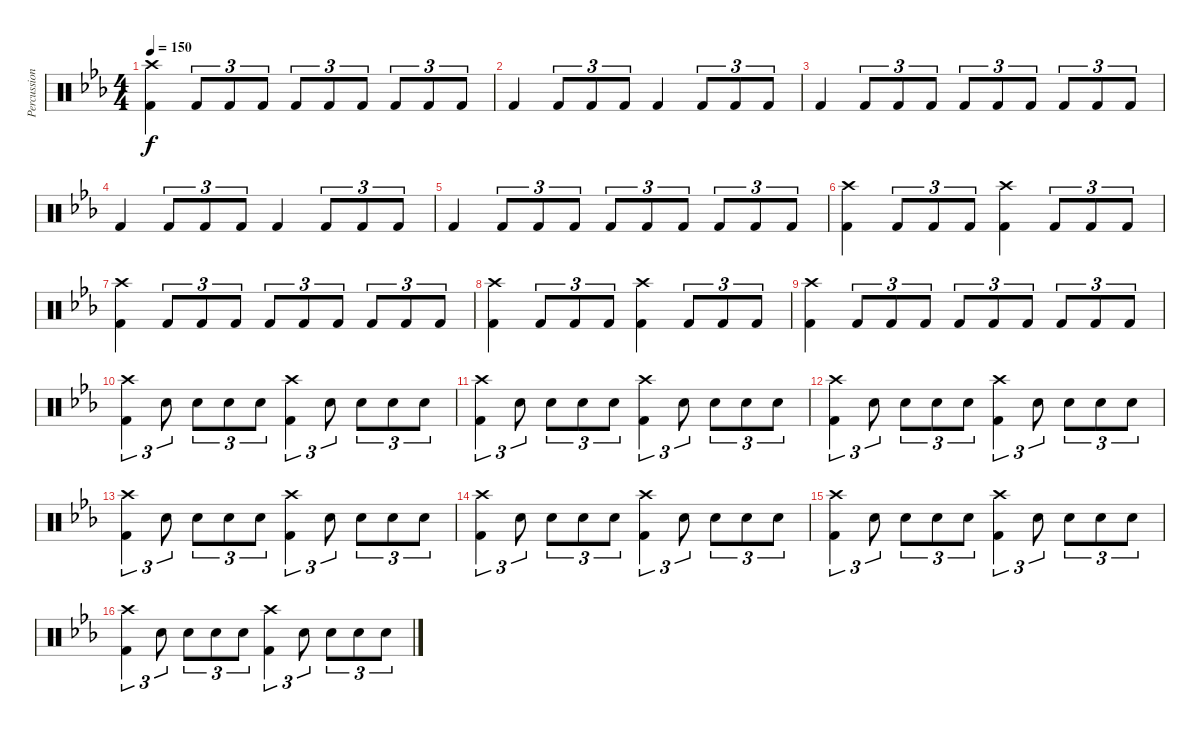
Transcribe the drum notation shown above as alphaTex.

\track ("Percussion" "Percussion") {instrument percussion}
\staff {score}
\articulation defaults
\ts (4 4)
\tempo 150
\clef neutral
\ks cminor
("Crash high (hit)" "Kick (hit) 2").4{dy f} "Kick (hit) 2".8{tu (3 2)} "Kick (hit) 2".8{tu (3 2)} "Kick (hit) 2".8{tu (3 2)} "Kick (hit) 2".8{tu (3 2)} "Kick (hit) 2".8{tu (3 2)} "Kick (hit) 2".8{tu (3 2)} "Kick (hit) 2".8{tu (3 2)} "Kick (hit) 2".8{tu (3 2)} "Kick (hit) 2".8{tu (3 2)} |
"Kick (hit) 2".4 "Kick (hit) 2".8{tu (3 2)} "Kick (hit) 2".8{tu (3 2)} "Kick (hit) 2".8{tu (3 2)} "Kick (hit) 2".4 "Kick (hit) 2".8{tu (3 2)} "Kick (hit) 2".8{tu (3 2)} "Kick (hit) 2".8{tu (3 2)} |
"Kick (hit) 2".4 "Kick (hit) 2".8{tu (3 2)} "Kick (hit) 2".8{tu (3 2)} "Kick (hit) 2".8{tu (3 2)} "Kick (hit) 2".8{tu (3 2)} "Kick (hit) 2".8{tu (3 2)} "Kick (hit) 2".8{tu (3 2)} "Kick (hit) 2".8{tu (3 2)} "Kick (hit) 2".8{tu (3 2)} "Kick (hit) 2".8{tu (3 2)} |
"Kick (hit) 2".4 "Kick (hit) 2".8{tu (3 2)} "Kick (hit) 2".8{tu (3 2)} "Kick (hit) 2".8{tu (3 2)} "Kick (hit) 2".4 "Kick (hit) 2".8{tu (3 2)} "Kick (hit) 2".8{tu (3 2)} "Kick (hit) 2".8{tu (3 2)} |
"Kick (hit) 2".4 "Kick (hit) 2".8{tu (3 2)} "Kick (hit) 2".8{tu (3 2)} "Kick (hit) 2".8{tu (3 2)} "Kick (hit) 2".8{tu (3 2)} "Kick (hit) 2".8{tu (3 2)} "Kick (hit) 2".8{tu (3 2)} "Kick (hit) 2".8{tu (3 2)} "Kick (hit) 2".8{tu (3 2)} "Kick (hit) 2".8{tu (3 2)} |
("Crash high (hit)" "Kick (hit) 2").4 "Kick (hit) 2".8{tu (3 2)} "Kick (hit) 2".8{tu (3 2)} "Kick (hit) 2".8{tu (3 2)} ("Crash high (hit)" "Kick (hit) 2").4 "Kick (hit) 2".8{tu (3 2)} "Kick (hit) 2".8{tu (3 2)} "Kick (hit) 2".8{tu (3 2)} |
("Crash high (hit)" "Kick (hit) 2").4 "Kick (hit) 2".8{tu (3 2)} "Kick (hit) 2".8{tu (3 2)} "Kick (hit) 2".8{tu (3 2)} "Kick (hit) 2".8{tu (3 2)} "Kick (hit) 2".8{tu (3 2)} "Kick (hit) 2".8{tu (3 2)} "Kick (hit) 2".8{tu (3 2)} "Kick (hit) 2".8{tu (3 2)} "Kick (hit) 2".8{tu (3 2)} |
("Crash high (hit)" "Kick (hit) 2").4 "Kick (hit) 2".8{tu (3 2)} "Kick (hit) 2".8{tu (3 2)} "Kick (hit) 2".8{tu (3 2)} ("Crash high (hit)" "Kick (hit) 2").4 "Kick (hit) 2".8{tu (3 2)} "Kick (hit) 2".8{tu (3 2)} "Kick (hit) 2".8{tu (3 2)} |
("Crash high (hit)" "Kick (hit) 2").4 "Kick (hit) 2".8{tu (3 2)} "Kick (hit) 2".8{tu (3 2)} "Kick (hit) 2".8{tu (3 2)} "Kick (hit) 2".8{tu (3 2)} "Kick (hit) 2".8{tu (3 2)} "Kick (hit) 2".8{tu (3 2)} "Kick (hit) 2".8{tu (3 2)} "Kick (hit) 2".8{tu (3 2)} "Kick (hit) 2".8{tu (3 2)} |
("Crash high (hit)" "Kick (hit) 2").4{tu (3 2)} "Snare (hit) 2".8{tu (3 2)} "Snare (hit) 2".8{tu (3 2)} "Snare (hit) 2".8{tu (3 2)} "Snare (hit) 2".8{tu (3 2)} ("Crash high (hit)" "Kick (hit) 2").4{tu (3 2)} "Snare (hit) 2".8{tu (3 2)} "Snare (hit) 2".8{tu (3 2)} "Snare (hit) 2".8{tu (3 2)} "Snare (hit) 2".8{tu (3 2)} |
("Crash high (hit)" "Kick (hit) 2").4{tu (3 2)} "Snare (hit) 2".8{tu (3 2)} "Snare (hit) 2".8{tu (3 2)} "Snare (hit) 2".8{tu (3 2)} "Snare (hit) 2".8{tu (3 2)} ("Crash high (hit)" "Kick (hit) 2").4{tu (3 2)} "Snare (hit) 2".8{tu (3 2)} "Snare (hit) 2".8{tu (3 2)} "Snare (hit) 2".8{tu (3 2)} "Snare (hit) 2".8{tu (3 2)} |
("Crash high (hit)" "Kick (hit) 2").4{tu (3 2)} "Snare (hit) 2".8{tu (3 2)} "Snare (hit) 2".8{tu (3 2)} "Snare (hit) 2".8{tu (3 2)} "Snare (hit) 2".8{tu (3 2)} ("Crash high (hit)" "Kick (hit) 2").4{tu (3 2)} "Snare (hit) 2".8{tu (3 2)} "Snare (hit) 2".8{tu (3 2)} "Snare (hit) 2".8{tu (3 2)} "Snare (hit) 2".8{tu (3 2)} |
("Crash high (hit)" "Kick (hit) 2").4{tu (3 2)} "Snare (hit) 2".8{tu (3 2)} "Snare (hit) 2".8{tu (3 2)} "Snare (hit) 2".8{tu (3 2)} "Snare (hit) 2".8{tu (3 2)} ("Crash high (hit)" "Kick (hit) 2").4{tu (3 2)} "Snare (hit) 2".8{tu (3 2)} "Snare (hit) 2".8{tu (3 2)} "Snare (hit) 2".8{tu (3 2)} "Snare (hit) 2".8{tu (3 2)} |
("Crash high (hit)" "Kick (hit) 2").4{tu (3 2)} "Snare (hit) 2".8{tu (3 2)} "Snare (hit) 2".8{tu (3 2)} "Snare (hit) 2".8{tu (3 2)} "Snare (hit) 2".8{tu (3 2)} ("Crash high (hit)" "Kick (hit) 2").4{tu (3 2)} "Snare (hit) 2".8{tu (3 2)} "Snare (hit) 2".8{tu (3 2)} "Snare (hit) 2".8{tu (3 2)} "Snare (hit) 2".8{tu (3 2)} |
("Crash high (hit)" "Kick (hit) 2").4{tu (3 2)} "Snare (hit) 2".8{tu (3 2)} "Snare (hit) 2".8{tu (3 2)} "Snare (hit) 2".8{tu (3 2)} "Snare (hit) 2".8{tu (3 2)} ("Crash high (hit)" "Kick (hit) 2").4{tu (3 2)} "Snare (hit) 2".8{tu (3 2)} "Snare (hit) 2".8{tu (3 2)} "Snare (hit) 2".8{tu (3 2)} "Snare (hit) 2".8{tu (3 2)} |
("Crash high (hit)" "Kick (hit) 2").4{tu (3 2)} "Snare (hit) 2".8{tu (3 2)} "Snare (hit) 2".8{tu (3 2)} "Snare (hit) 2".8{tu (3 2)} "Snare (hit) 2".8{tu (3 2)} ("Crash high (hit)" "Kick (hit) 2").4{tu (3 2)} "Snare (hit) 2".8{tu (3 2)} "Snare (hit) 2".8{tu (3 2)} "Snare (hit) 2".8{tu (3 2)} "Snare (hit) 2".8{tu (3 2)}
